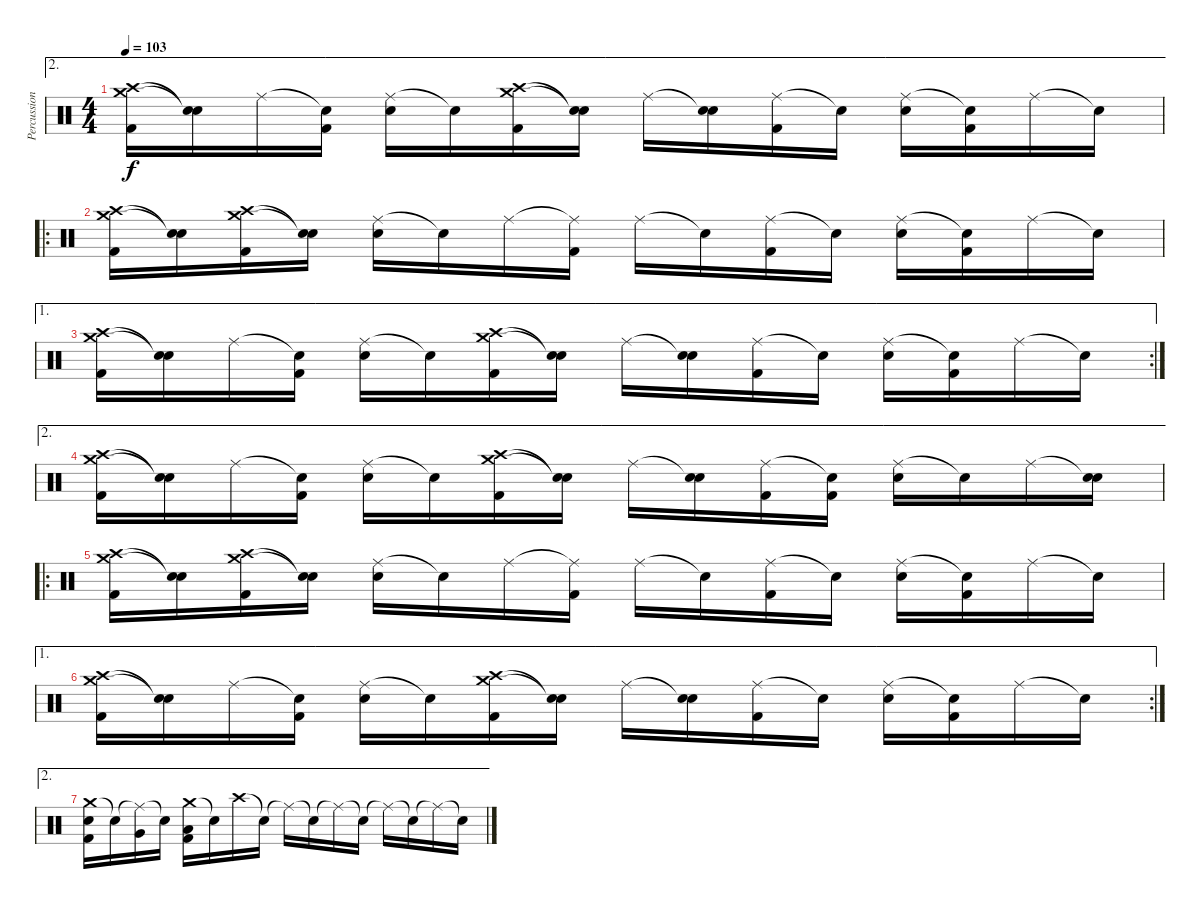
\track ("Percussion" "Percussion") {instrument percussion}
\staff {score}
\articulation defaults
\ae 2
\ts (4 4)
\tempo 103
\clef neutral
\ks c
("Crash medium (hit)" "Crash high (hit)" "Kick (hit) 2").16{dy f} ("Snare (hit)"{t} "Snare (hit)"{t}).16 "Ride (middle)".16 ("Snare (hit)"{t} "Kick (hit) 2").16 ("Ride (middle)" "Snare (hit) 2").16 "Snare (hit)"{t}.16 ("Crash medium (hit)" "Crash high (hit)" "Kick (hit) 2").16 ("Snare (hit)"{t} "Snare (hit)"{t}).16 "Ride (middle)".16 ("Snare (hit)"{t} "Snare (hit) 2").16 ("Ride (middle)" "Kick (hit) 2").16 "Snare (hit)"{t}.16 ("Ride (middle)" "Snare (hit) 2").16 ("Snare (hit)"{t} "Kick (hit) 2").16 "Ride (middle)".16 "Snare (hit)"{t}.16 |
\ro
("Crash medium (hit)" "Crash high (hit)" "Kick (hit) 2").16 ("Snare (hit)"{t} "Snare (hit)"{t}).16 ("Crash medium (hit)" "Crash high (hit)" "Kick (hit) 2").16 ("Snare (hit)"{t} "Snare (hit)"{t}).16 ("Ride (middle)" "Snare (hit) 2").16 "Snare (hit)"{t}.16 "Ride (middle)".16 ("Ride (middle)"{t} "Kick (hit) 2").16 "Ride (middle)".16 "Snare (hit)"{t}.16 ("Ride (middle)" "Kick (hit) 2").16 "Snare (hit)"{t}.16 ("Ride (middle)" "Snare (hit) 2").16 ("Snare (hit)"{t} "Kick (hit) 2").16 "Ride (middle)".16 "Snare (hit)"{t}.16 |
\ae 1
\rc 2
("Crash medium (hit)" "Crash high (hit)" "Kick (hit) 2").16 ("Snare (hit)"{t} "Snare (hit)"{t}).16 "Ride (middle)".16 ("Snare (hit)"{t} "Kick (hit) 2").16 ("Ride (middle)" "Snare (hit) 2").16 "Snare (hit)"{t}.16 ("Crash medium (hit)" "Crash high (hit)" "Kick (hit) 2").16 ("Snare (hit)"{t} "Snare (hit)"{t}).16 "Ride (middle)".16 ("Snare (hit)"{t} "Snare (hit) 2").16 ("Ride (middle)" "Kick (hit) 2").16 "Snare (hit)"{t}.16 ("Ride (middle)" "Snare (hit) 2").16 ("Snare (hit)"{t} "Kick (hit) 2").16 "Ride (middle)".16 "Snare (hit)"{t}.16 |
\ae 2
("Crash medium (hit)" "Crash high (hit)" "Kick (hit) 2").16 ("Snare (hit)"{t} "Snare (hit)"{t}).16 "Ride (middle)".16 ("Snare (hit)"{t} "Kick (hit) 2").16 ("Ride (middle)" "Snare (hit) 2").16 "Snare (hit)"{t}.16 ("Crash medium (hit)" "Crash high (hit)" "Kick (hit) 2").16 ("Snare (hit)"{t} "Snare (hit)"{t}).16 "Ride (middle)".16 ("Snare (hit)"{t} "Snare (hit) 2").16 ("Ride (middle)" "Kick (hit) 2").16 ("Snare (hit)"{t} "Kick (hit) 2").16 ("Ride (middle)" "Snare (hit) 2").16 "Snare (hit)"{t}.16 "Ride (middle)".16 ("Snare (hit)"{t} "Snare (hit) 2").16 |
\ro
("Crash medium (hit)" "Crash high (hit)" "Kick (hit) 2").16 ("Snare (hit)"{t} "Snare (hit)"{t}).16 ("Crash medium (hit)" "Crash high (hit)" "Kick (hit) 2").16 ("Snare (hit)"{t} "Snare (hit)"{t}).16 ("Ride (middle)" "Snare (hit) 2").16 "Snare (hit)"{t}.16 "Ride (middle)".16 ("Ride (middle)"{t} "Kick (hit) 2").16 "Ride (middle)".16 "Snare (hit)"{t}.16 ("Ride (middle)" "Kick (hit) 2").16 "Snare (hit)"{t}.16 ("Ride (middle)" "Snare (hit) 2").16 ("Snare (hit)"{t} "Kick (hit) 2").16 "Ride (middle)".16 "Snare (hit)"{t}.16 |
\ae 1
\rc 2
("Crash medium (hit)" "Crash high (hit)" "Kick (hit) 2").16 ("Snare (hit)"{t} "Snare (hit)"{t}).16 "Ride (middle)".16 ("Snare (hit)"{t} "Kick (hit) 2").16 ("Ride (middle)" "Snare (hit) 2").16 "Snare (hit)"{t}.16 ("Crash medium (hit)" "Crash high (hit)" "Kick (hit) 2").16 ("Snare (hit)"{t} "Snare (hit)"{t}).16 "Ride (middle)".16 ("Snare (hit)"{t} "Snare (hit) 2").16 ("Ride (middle)" "Kick (hit) 2").16 "Snare (hit)"{t}.16 ("Ride (middle)" "Snare (hit) 2").16 ("Snare (hit)"{t} "Kick (hit) 2").16 "Ride (middle)".16 "Snare (hit)"{t}.16 |
\ae 2
("Crash medium (hit)" "Snare (hit) 2" "Kick (hit) 2").16 "Snare (hit)"{t}.16 ("Ride (middle)"{t} "Very Low Tom (hit)").16 "Snare (hit)"{t}.16 ("Crash medium (hit)" "Low Floor Tom (hit)" "Kick (hit) 2").16 "Snare (hit)"{t}.16 "Crash high (hit)".16 "Snare (hit)"{t}.16 "Ride (middle)"{t}.16 "Snare (hit)"{t}.16 "Ride (middle)"{t}.16 "Snare (hit)"{t}.16 "Ride (middle)"{t}.16 "Snare (hit)"{t}.16 "Ride (middle)"{t}.16 "Snare (hit)"{t}.16
